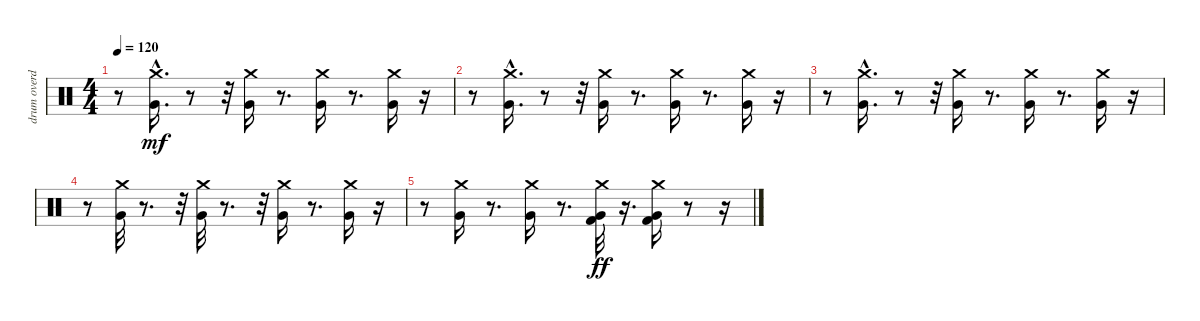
\track ("drum overdub" "drum overd") {instrument percussion}
\staff {score}
\articulation defaults
\ts (4 4)
\tempo 120
\clef neutral
\ks c
r.8{dy mf} ("Crash medium (hit)" "Very Low Tom (hit)"{hac}).16{d} r.8 r.32 ("Crash medium (hit)" "Very Low Tom (hit)").16 r.8{d} ("Crash medium (hit)" "Very Low Tom (hit)").16 r.8{d} ("Crash medium (hit)" "Very Low Tom (hit)").16 r.16 |
r.8 ("Crash medium (hit)" "Very Low Tom (hit)"{hac}).16{d} r.8 r.32 ("Crash medium (hit)" "Very Low Tom (hit)").16 r.8{d} ("Crash medium (hit)" "Very Low Tom (hit)").16 r.8{d} ("Crash medium (hit)" "Very Low Tom (hit)").16 r.16 |
r.8 ("Crash medium (hit)" "Very Low Tom (hit)"{hac}).16{d} r.8 r.32 ("Crash medium (hit)" "Very Low Tom (hit)").16 r.8{d} ("Crash medium (hit)" "Very Low Tom (hit)").16 r.8{d} ("Crash medium (hit)" "Very Low Tom (hit)").16 r.16 |
r.8 ("Crash medium (hit)" "Very Low Tom (hit)").32 r.8{d} r.32 ("Crash medium (hit)" "Very Low Tom (hit)").32 r.8{d} r.32 ("Crash medium (hit)" "Very Low Tom (hit)").16 r.8{d} ("Crash medium (hit)" "Very Low Tom (hit)").16 r.16 |
r.8 ("Crash medium (hit)" "Very Low Tom (hit)").16 r.8{d} ("Crash medium (hit)" "Very Low Tom (hit)").16 r.8{d} ("Crash medium (hit)" "Very Low Tom (hit)" "Kick (hit) 2").32{dy ff} r.16{d} ("Crash medium (hit)" "Very Low Tom (hit)" "Kick (hit) 2").16 r.8 r.16
